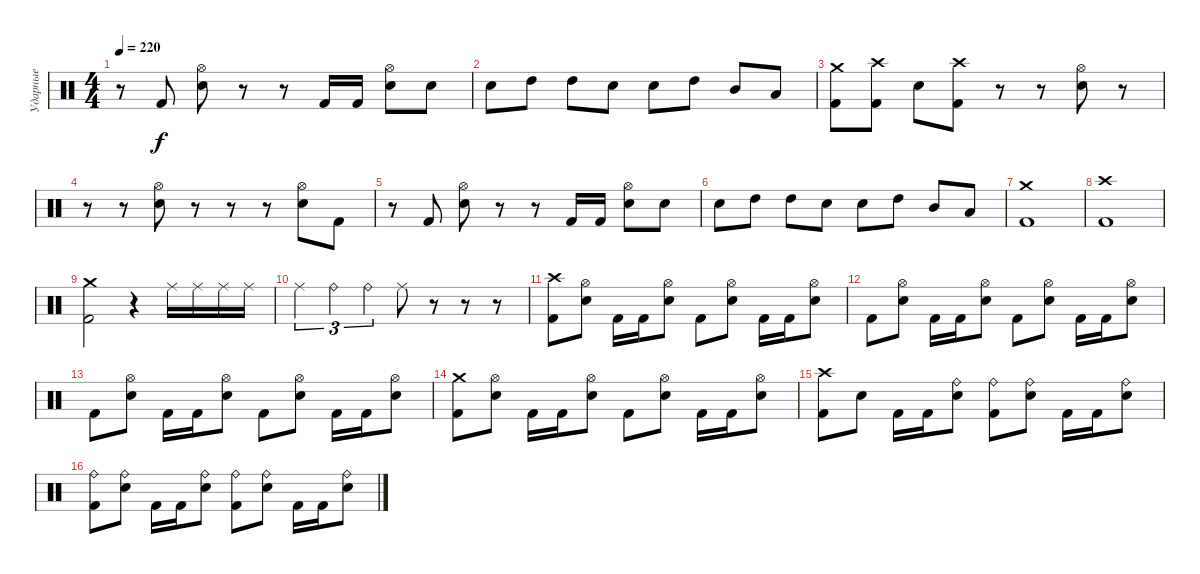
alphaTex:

\track ("Ударные" "Ударные") {instrument percussion}
\staff {score}
\articulation defaults
\ts (4 4)
\tempo 220
\clef neutral
\ks c
r.8{dy f} "Kick (hit) 2".8 ("Hi-Hat (open)" "Electric Snare (hit)").8 r.8 r.8 "Kick (hit) 2".16 "Kick (hit) 2".16 ("Hi-Hat (open)" "Electric Snare (hit)").8 "Electric Snare (hit)".8 |
"Electric Snare (hit)".8 "High Tom (hit)".8 "High Tom (hit)".8 "Electric Snare (hit)".8 "Electric Snare (hit)".8 "High Tom (hit)".8 "Mid Tom (hit)".8 "Low Floor Tom (hit)".8 |
("Crash medium (hit)" "Kick (hit) 2").8 ("Crash high (hit)" "Kick (hit) 2").8 "Electric Snare (hit)".8 ("Crash high (hit)" "Kick (hit) 2").8 r.8 r.8 ("Hi-Hat (open)" "Electric Snare (hit)").8 r.8 |
r.8 r.8 ("Hi-Hat (open)" "Electric Snare (hit)").8 r.8 r.8 r.8 ("Hi-Hat (open)" "Electric Snare (hit)").8 "Kick (hit) 2".8 |
r.8 "Kick (hit) 2".8 ("Hi-Hat (open)" "Electric Snare (hit)").8 r.8 r.8 "Kick (hit) 2".16 "Kick (hit) 2".16 ("Hi-Hat (open)" "Electric Snare (hit)").8 "Electric Snare (hit)".8 |
"Electric Snare (hit)".8 "High Tom (hit)".8 "High Tom (hit)".8 "Electric Snare (hit)".8 "Electric Snare (hit)".8 "High Tom (hit)".8 "Mid Tom (hit)".8 "Low Floor Tom (hit)".8 |
("Crash medium (hit)" "Kick (hit) 2").1 |
("Crash high (hit)" "Kick (hit) 2").1 |
("Crash medium (hit)" "Kick (hit) 2").2 r.4 "Ride (middle)".16 "Ride (middle)".16 "Ride (middle)".16 "Ride (middle)".16 |
"Ride (middle)".4{tu (3 2)} "Ride (bell)".4{tu (3 2)} "Ride (bell)".4{tu (3 2)} "Ride (middle)".8 r.8 r.8 r.8 |
("Crash high (hit)" "Kick (hit) 2").8 ("Hi-Hat (open)" "Electric Snare (hit)").8 "Kick (hit) 2".16 "Kick (hit) 2".16 ("Hi-Hat (open)" "Electric Snare (hit)").8 "Kick (hit) 2".8 ("Hi-Hat (open)" "Electric Snare (hit)").8 "Kick (hit) 2".16 "Kick (hit) 2".16 ("Hi-Hat (open)" "Electric Snare (hit)").8 |
"Kick (hit) 2".8 ("Hi-Hat (open)" "Electric Snare (hit)").8 "Kick (hit) 2".16 "Kick (hit) 2".16 ("Hi-Hat (open)" "Electric Snare (hit)").8 "Kick (hit) 2".8 ("Hi-Hat (open)" "Electric Snare (hit)").8 "Kick (hit) 2".16 "Kick (hit) 2".16 ("Hi-Hat (open)" "Electric Snare (hit)").8 |
"Kick (hit) 2".8 ("Hi-Hat (open)" "Electric Snare (hit)").8 "Kick (hit) 2".16 "Kick (hit) 2".16 ("Hi-Hat (open)" "Electric Snare (hit)").8 "Kick (hit) 2".8 ("Hi-Hat (open)" "Electric Snare (hit)").8 "Kick (hit) 2".16 "Kick (hit) 2".16 ("Hi-Hat (open)" "Electric Snare (hit)").8 |
("Crash medium (hit)" "Kick (hit) 2").8 ("Hi-Hat (open)" "Electric Snare (hit)").8 "Kick (hit) 2".16 "Kick (hit) 2".16 ("Hi-Hat (open)" "Electric Snare (hit)").8 "Kick (hit) 2".8 ("Hi-Hat (open)" "Electric Snare (hit)").8 "Kick (hit) 2".16 "Kick (hit) 2".16 ("Hi-Hat (open)" "Electric Snare (hit)").8 |
("Crash high (hit)" "Kick (hit) 2").8 "Electric Snare (hit)".8 "Kick (hit) 2".16 "Kick (hit) 2".16 ("Ride (bell)" "Electric Snare (hit)").8 ("Ride (bell)" "Kick (hit) 2").8 ("Ride (bell)" "Electric Snare (hit)").8 "Kick (hit) 2".16 "Kick (hit) 2".16 ("Ride (bell)" "Electric Snare (hit)").8 |
("Ride (bell)" "Kick (hit) 2").8 ("Ride (bell)" "Electric Snare (hit)").8 "Kick (hit) 2".16 "Kick (hit) 2".16 ("Ride (bell)" "Electric Snare (hit)").8 ("Ride (bell)" "Kick (hit) 2").8 ("Ride (bell)" "Electric Snare (hit)").8 "Kick (hit) 2".16 "Kick (hit) 2".16 ("Ride (bell)" "Electric Snare (hit)").8
